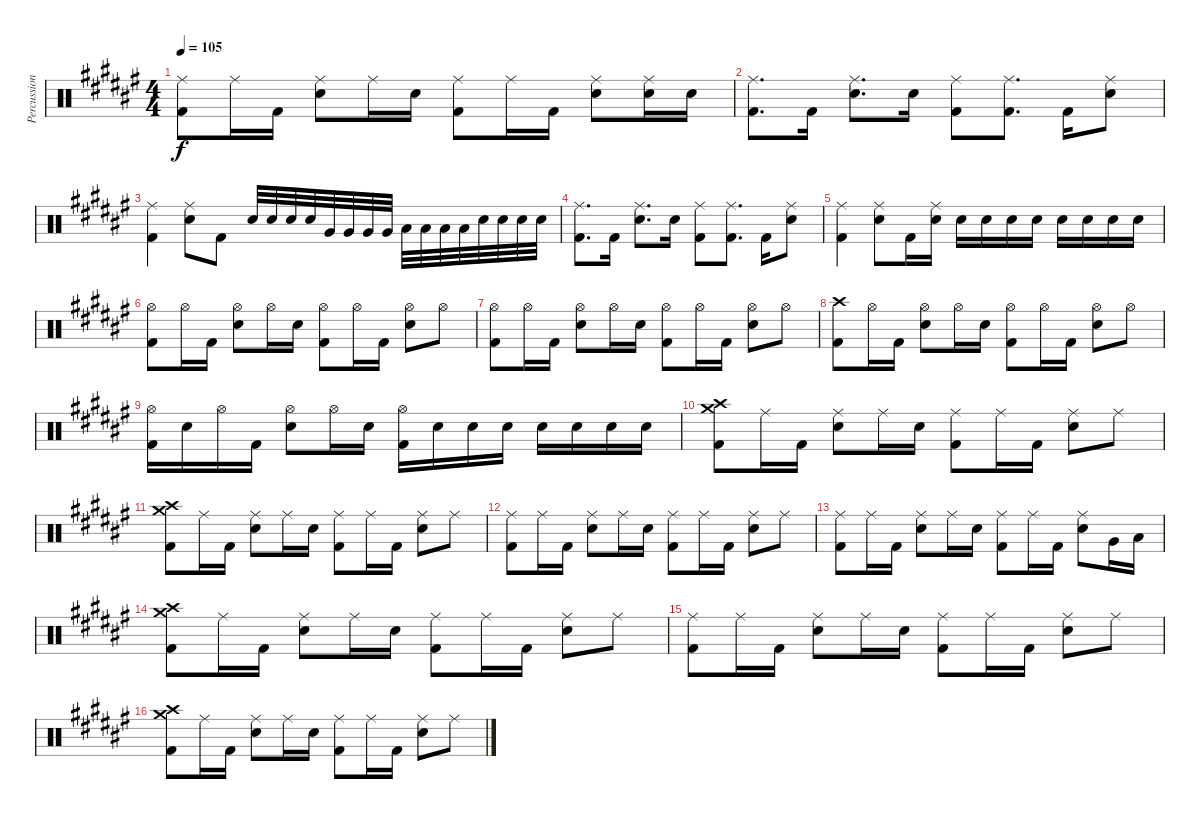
\track ("Percussion" "Percussion") {instrument percussion}
\staff {score}
\articulation defaults
\ts (4 4)
\tempo 105
\clef neutral
\ks d#minor
("Kick (hit) 2" "Ride (middle)").8{dy f} "Ride (middle)".16 "Kick (hit) 2".16 ("Electric Snare (hit)" "Ride (middle)").8 "Ride (middle)".16 "Electric Snare (hit)".16 ("Kick (hit) 2" "Ride (middle)").8 "Ride (middle)".16 "Kick (hit) 2".16 ("Electric Snare (hit)" "Ride (middle)").8 ("Electric Snare (hit)" "Ride (middle)").16 "Electric Snare (hit)".16 |
("Kick (hit) 2" "Ride (middle)").8{d} "Kick (hit) 2".16 ("Electric Snare (hit)" "Ride (middle)").8{d} "Electric Snare (hit)".16 ("Kick (hit) 2" "Ride (middle)").8 ("Kick (hit) 2" "Ride (middle)").8{d} "Kick (hit) 2".16 ("Electric Snare (hit)" "Ride (middle)").8 |
("Kick (hit) 2" "Ride (middle)").4 ("Electric Snare (hit)" "Ride (middle)").8 "Kick (hit) 2".8 "Electric Snare (hit)".32 "Electric Snare (hit)".32 "Electric Snare (hit)".32 "Electric Snare (hit)".32 "Very Low Tom (hit)".32 "Very Low Tom (hit)".32 "Very Low Tom (hit)".32 "Very Low Tom (hit)".32 "Low Floor Tom (hit)".32 "Low Floor Tom (hit)".32 "Low Floor Tom (hit)".32 "Low Floor Tom (hit)".32 "Electric Snare (hit)".32 "Electric Snare (hit)".32 "Electric Snare (hit)".32 "Electric Snare (hit)".32 |
("Kick (hit) 2" "Ride (middle)").8{d} "Kick (hit) 2".16 ("Electric Snare (hit)" "Ride (middle)").8{d} "Electric Snare (hit)".16 ("Kick (hit) 2" "Ride (middle)").8 ("Kick (hit) 2" "Ride (middle)").8{d} "Kick (hit) 2".16 ("Electric Snare (hit)" "Ride (middle)").8 |
("Kick (hit) 2" "Ride (middle)").4 ("Electric Snare (hit)" "Ride (middle)").8 "Kick (hit) 2".16 ("Electric Snare (hit)" "Ride (middle)").16 "Electric Snare (hit)".16 "Electric Snare (hit)".16 "Electric Snare (hit)".16 "Electric Snare (hit)".16 "Electric Snare (hit)".16 "Electric Snare (hit)".16 "Electric Snare (hit)".16 "Electric Snare (hit)".16 |
("Kick (hit) 2" "Hi-Hat (open)").8 "Hi-Hat (open)".16 "Kick (hit) 2".16 ("Electric Snare (hit)" "Hi-Hat (open)").8 "Hi-Hat (open)".16 "Electric Snare (hit)".16 ("Kick (hit) 2" "Hi-Hat (open)").8 "Hi-Hat (open)".16 "Kick (hit) 2".16 ("Electric Snare (hit)" "Hi-Hat (open)").8 "Hi-Hat (open)".8 |
("Kick (hit) 2" "Hi-Hat (open)").8 "Hi-Hat (open)".16 "Kick (hit) 2".16 ("Electric Snare (hit)" "Hi-Hat (open)").8 "Hi-Hat (open)".16 "Electric Snare (hit)".16 ("Kick (hit) 2" "Hi-Hat (open)").8 "Hi-Hat (open)".16 "Kick (hit) 2".16 ("Electric Snare (hit)" "Hi-Hat (open)").8 "Hi-Hat (open)".8 |
("Kick (hit) 2" "Crash high (hit)").8 "Hi-Hat (open)".16 "Kick (hit) 2".16 ("Electric Snare (hit)" "Hi-Hat (open)").8 "Hi-Hat (open)".16 "Electric Snare (hit)".16 ("Kick (hit) 2" "Hi-Hat (open)").8 "Hi-Hat (open)".16 "Kick (hit) 2".16 ("Electric Snare (hit)" "Hi-Hat (open)").8 "Hi-Hat (open)".8 |
("Kick (hit) 2" "Hi-Hat (open)").16 "Electric Snare (hit)".16 "Hi-Hat (open)".16 "Kick (hit) 2".16 ("Electric Snare (hit)" "Hi-Hat (open)").8 "Hi-Hat (open)".16 "Electric Snare (hit)".16 ("Kick (hit) 2" "Hi-Hat (open)").16 "Electric Snare (hit)".16 "Electric Snare (hit)".16 "Electric Snare (hit)".16 "Electric Snare (hit)".16 "Electric Snare (hit)".16 "Electric Snare (hit)".16 "Electric Snare (hit)".16 |
("Kick (hit) 2" "Crash medium (hit)" "Crash high (hit)").8 "Ride (middle)".16 "Kick (hit) 2".16 ("Electric Snare (hit)" "Ride (middle)").8 "Ride (middle)".16 "Electric Snare (hit)".16 ("Kick (hit) 2" "Ride (middle)").8 "Ride (middle)".16 "Kick (hit) 2".16 ("Electric Snare (hit)" "Ride (middle)").8 "Ride (middle)".8 |
("Kick (hit) 2" "Crash medium (hit)" "Crash high (hit)").8 "Ride (middle)".16 "Kick (hit) 2".16 ("Electric Snare (hit)" "Ride (middle)").8 "Ride (middle)".16 "Electric Snare (hit)".16 ("Kick (hit) 2" "Ride (middle)").8 "Ride (middle)".16 "Kick (hit) 2".16 ("Electric Snare (hit)" "Ride (middle)").8 "Ride (middle)".8 |
("Kick (hit) 2" "Ride (middle)").8 "Ride (middle)".16 "Kick (hit) 2".16 ("Electric Snare (hit)" "Ride (middle)").8 "Ride (middle)".16 "Electric Snare (hit)".16 ("Kick (hit) 2" "Ride (middle)").8 "Ride (middle)".16 "Kick (hit) 2".16 ("Electric Snare (hit)" "Ride (middle)").8 "Ride (middle)".8 |
("Kick (hit) 2" "Ride (middle)").8 "Ride (middle)".16 "Kick (hit) 2".16 ("Electric Snare (hit)" "Ride (middle)").8 "Ride (middle)".16 "Electric Snare (hit)".16 ("Kick (hit) 2" "Ride (middle)").8 "Ride (middle)".16 "Kick (hit) 2".16 ("Electric Snare (hit)" "Ride (middle)").8 "Very Low Tom (hit)".16 "Low Floor Tom (hit)".16 |
("Kick (hit) 2" "Crash medium (hit)" "Crash high (hit)").8 "Ride (middle)".16 "Kick (hit) 2".16 ("Electric Snare (hit)" "Ride (middle)").8 "Ride (middle)".16 "Electric Snare (hit)".16 ("Kick (hit) 2" "Ride (middle)").8 "Ride (middle)".16 "Kick (hit) 2".16 ("Electric Snare (hit)" "Ride (middle)").8 "Ride (middle)".8 |
("Kick (hit) 2" "Ride (middle)").8 "Ride (middle)".16 "Kick (hit) 2".16 ("Electric Snare (hit)" "Ride (middle)").8 "Ride (middle)".16 "Electric Snare (hit)".16 ("Kick (hit) 2" "Ride (middle)").8 "Ride (middle)".16 "Kick (hit) 2".16 ("Electric Snare (hit)" "Ride (middle)").8 "Ride (middle)".8 |
("Kick (hit) 2" "Crash medium (hit)" "Crash high (hit)").8 "Ride (middle)".16 "Kick (hit) 2".16 ("Electric Snare (hit)" "Ride (middle)").8 "Ride (middle)".16 "Electric Snare (hit)".16 ("Kick (hit) 2" "Ride (middle)").8 "Ride (middle)".16 "Kick (hit) 2".16 ("Electric Snare (hit)" "Ride (middle)").8 "Ride (middle)".8
